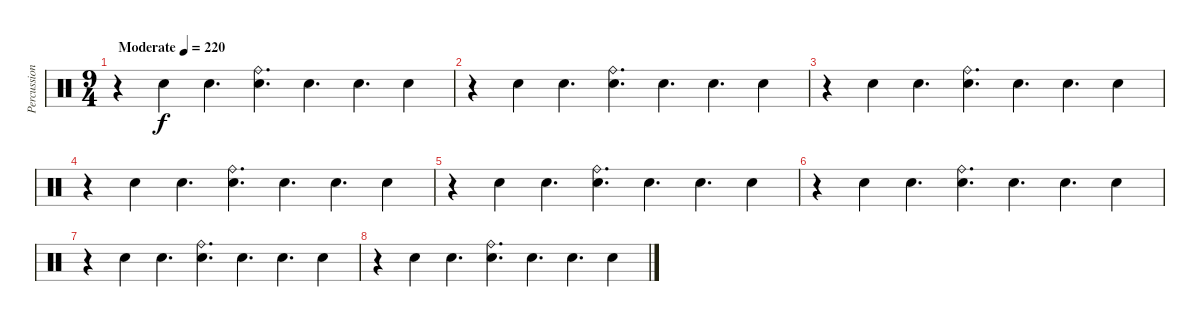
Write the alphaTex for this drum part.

\track ("Percussion" "Percussion") {instrument percussion}
\staff {score}
\articulation defaults
\ts (9 4)
\tempo (220 "Moderate")
\clef neutral
\ks c
r.4{dy f} "Electric Snare (hit)".4 "Electric Snare (hit)".4{d} ("Electric Snare (hit)" "Ride (bell)").4{d} "Electric Snare (hit)".4{d} "Electric Snare (hit)".4{d} "Electric Snare (hit)".4 |
r.4 "Electric Snare (hit)".4 "Electric Snare (hit)".4{d} ("Electric Snare (hit)" "Ride (bell)").4{d} "Electric Snare (hit)".4{d} "Electric Snare (hit)".4{d} "Electric Snare (hit)".4 |
r.4 "Electric Snare (hit)".4 "Electric Snare (hit)".4{d} ("Electric Snare (hit)" "Ride (bell)").4{d} "Electric Snare (hit)".4{d} "Electric Snare (hit)".4{d} "Electric Snare (hit)".4 |
r.4 "Electric Snare (hit)".4 "Electric Snare (hit)".4{d} ("Electric Snare (hit)" "Ride (bell)").4{d} "Electric Snare (hit)".4{d} "Electric Snare (hit)".4{d} "Electric Snare (hit)".4 |
r.4 "Electric Snare (hit)".4 "Electric Snare (hit)".4{d} ("Electric Snare (hit)" "Ride (bell)").4{d} "Electric Snare (hit)".4{d} "Electric Snare (hit)".4{d} "Electric Snare (hit)".4 |
r.4 "Electric Snare (hit)".4 "Electric Snare (hit)".4{d} ("Electric Snare (hit)" "Ride (bell)").4{d} "Electric Snare (hit)".4{d} "Electric Snare (hit)".4{d} "Electric Snare (hit)".4 |
r.4 "Electric Snare (hit)".4 "Electric Snare (hit)".4{d} ("Electric Snare (hit)" "Ride (bell)").4{d} "Electric Snare (hit)".4{d} "Electric Snare (hit)".4{d} "Electric Snare (hit)".4 |
r.4 "Electric Snare (hit)".4 "Electric Snare (hit)".4{d} ("Electric Snare (hit)" "Ride (bell)").4{d} "Electric Snare (hit)".4{d} "Electric Snare (hit)".4{d} "Electric Snare (hit)".4
